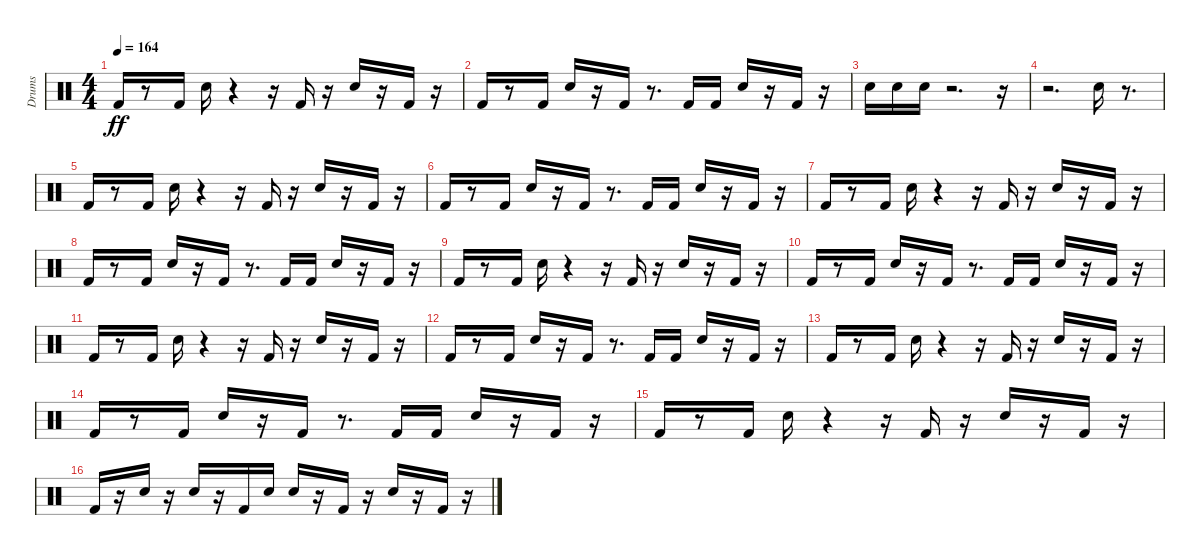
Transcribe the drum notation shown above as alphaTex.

\track ("Drums               " "Drums     ") {instrument percussion}
\staff {score}
\articulation defaults
\ts (4 4)
\tempo 164
\clef neutral
\ks c "Kick (hit) 2".16{dy ff}
r.8 "Kick (hit) 2".16 "Electric Snare (hit)".16 r.4 r.16 "Kick (hit) 2".16 r.16 "Electric Snare (hit)".16 r.16 "Kick (hit) 2".16 r.16 |
"Kick (hit) 2".16 r.8 "Kick (hit) 2".16 "Electric Snare (hit)".16 r.16 "Kick (hit) 2".16 r.8{d} "Kick (hit) 2".16 "Kick (hit) 2".16 "Electric Snare (hit)".16 r.16 "Kick (hit) 2".16 r.16 |
"Electric Snare (hit)".16 "Electric Snare (hit)".16 "Electric Snare (hit)".16 r.2{d} r.16 |
r.2{d} "Electric Snare (hit)".16 r.8{d} |
"Kick (hit) 2".16 r.8 "Kick (hit) 2".16 "Electric Snare (hit)".16 r.4 r.16 "Kick (hit) 2".16 r.16 "Electric Snare (hit)".16 r.16 "Kick (hit) 2".16 r.16 |
"Kick (hit) 2".16 r.8 "Kick (hit) 2".16 "Electric Snare (hit)".16 r.16 "Kick (hit) 2".16 r.8{d} "Kick (hit) 2".16 "Kick (hit) 2".16 "Electric Snare (hit)".16 r.16 "Kick (hit) 2".16 r.16 |
"Kick (hit) 2".16 r.8 "Kick (hit) 2".16 "Electric Snare (hit)".16 r.4 r.16 "Kick (hit) 2".16 r.16 "Electric Snare (hit)".16 r.16 "Kick (hit) 2".16 r.16 |
"Kick (hit) 2".16 r.8 "Kick (hit) 2".16 "Electric Snare (hit)".16 r.16 "Kick (hit) 2".16 r.8{d} "Kick (hit) 2".16 "Kick (hit) 2".16 "Electric Snare (hit)".16 r.16 "Kick (hit) 2".16 r.16 |
"Kick (hit) 2".16 r.8 "Kick (hit) 2".16 "Electric Snare (hit)".16 r.4 r.16 "Kick (hit) 2".16 r.16 "Electric Snare (hit)".16 r.16 "Kick (hit) 2".16 r.16 |
"Kick (hit) 2".16 r.8 "Kick (hit) 2".16 "Electric Snare (hit)".16 r.16 "Kick (hit) 2".16 r.8{d} "Kick (hit) 2".16 "Kick (hit) 2".16 "Electric Snare (hit)".16 r.16 "Kick (hit) 2".16 r.16 |
"Kick (hit) 2".16 r.8 "Kick (hit) 2".16 "Electric Snare (hit)".16 r.4 r.16 "Kick (hit) 2".16 r.16 "Electric Snare (hit)".16 r.16 "Kick (hit) 2".16 r.16 |
"Kick (hit) 2".16 r.8 "Kick (hit) 2".16 "Electric Snare (hit)".16 r.16 "Kick (hit) 2".16 r.8{d} "Kick (hit) 2".16 "Kick (hit) 2".16 "Electric Snare (hit)".16 r.16 "Kick (hit) 2".16 r.16 |
"Kick (hit) 2".16 r.8 "Kick (hit) 2".16 "Electric Snare (hit)".16 r.4 r.16 "Kick (hit) 2".16 r.16 "Electric Snare (hit)".16 r.16 "Kick (hit) 2".16 r.16 |
"Kick (hit) 2".16 r.8 "Kick (hit) 2".16 "Electric Snare (hit)".16 r.16 "Kick (hit) 2".16 r.8{d} "Kick (hit) 2".16 "Kick (hit) 2".16 "Electric Snare (hit)".16 r.16 "Kick (hit) 2".16 r.16 |
"Kick (hit) 2".16 r.8 "Kick (hit) 2".16 "Electric Snare (hit)".16 r.4 r.16 "Kick (hit) 2".16 r.16 "Electric Snare (hit)".16 r.16 "Kick (hit) 2".16 r.16 |
"Kick (hit) 2".16 r.16 "Electric Snare (hit)".16 r.16 "Electric Snare (hit)".16 r.16 "Kick (hit) 2".16 "Electric Snare (hit)".16 "Electric Snare (hit)".16 r.16 "Kick (hit) 2".16 r.16 "Electric Snare (hit)".16 r.16 "Kick (hit) 2".16 r.16
